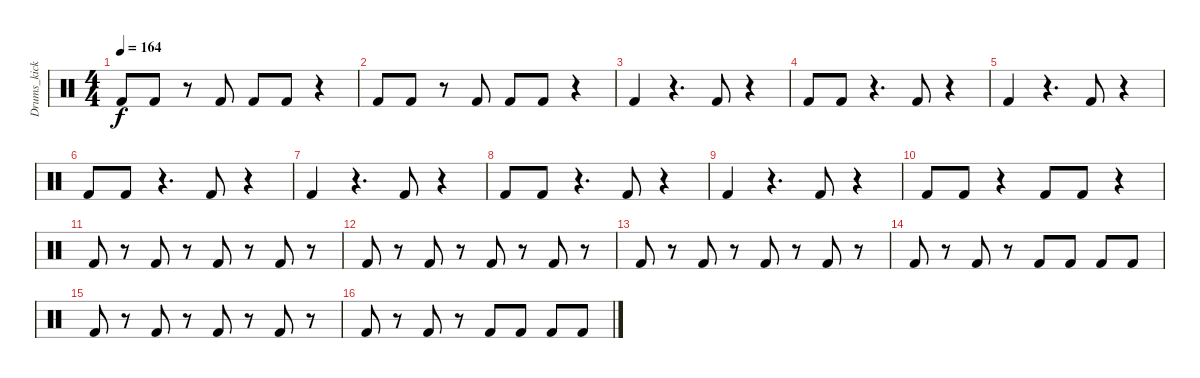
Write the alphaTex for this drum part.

\track ("Drums_kick" "Drums_kick") {instrument percussion}
\staff {score}
\articulation defaults
\ts (4 4)
\tempo 164
\clef neutral
\ks c "Kick (hit) 2".8{dy f} "Kick (hit) 2".8
r.8 "Kick (hit) 2".8 "Kick (hit) 2".8 "Kick (hit) 2".8 r.4 |
"Kick (hit) 2".8 "Kick (hit) 2".8 r.8 "Kick (hit) 2".8 "Kick (hit) 2".8 "Kick (hit) 2".8 r.4 |
"Kick (hit) 2".4 r.4{d} "Kick (hit) 2".8 r.4 |
"Kick (hit) 2".8 "Kick (hit) 2".8 r.4{d} "Kick (hit) 2".8 r.4 |
"Kick (hit) 2".4 r.4{d} "Kick (hit) 2".8 r.4 |
"Kick (hit) 2".8 "Kick (hit) 2".8 r.4{d} "Kick (hit) 2".8 r.4 |
"Kick (hit) 2".4 r.4{d} "Kick (hit) 2".8 r.4 |
"Kick (hit) 2".8 "Kick (hit) 2".8 r.4{d} "Kick (hit) 2".8 r.4 |
"Kick (hit) 2".4 r.4{d} "Kick (hit) 2".8 r.4 |
"Kick (hit) 2".8 "Kick (hit) 2".8 r.4 "Kick (hit) 2".8 "Kick (hit) 2".8 r.4 |
"Kick (hit) 2".8 r.8 "Kick (hit) 2".8 r.8 "Kick (hit) 2".8 r.8 "Kick (hit) 2".8 r.8 |
"Kick (hit) 2".8 r.8 "Kick (hit) 2".8 r.8 "Kick (hit) 2".8 r.8 "Kick (hit) 2".8 r.8 |
"Kick (hit) 2".8 r.8 "Kick (hit) 2".8 r.8 "Kick (hit) 2".8 r.8 "Kick (hit) 2".8 r.8 |
"Kick (hit) 2".8 r.8 "Kick (hit) 2".8 r.8 "Kick (hit) 2".8 "Kick (hit) 2".8 "Kick (hit) 2".8 "Kick (hit) 2".8 |
"Kick (hit) 2".8 r.8 "Kick (hit) 2".8 r.8 "Kick (hit) 2".8 r.8 "Kick (hit) 2".8 r.8 |
"Kick (hit) 2".8 r.8 "Kick (hit) 2".8 r.8 "Kick (hit) 2".8 "Kick (hit) 2".8 "Kick (hit) 2".8 "Kick (hit) 2".8
